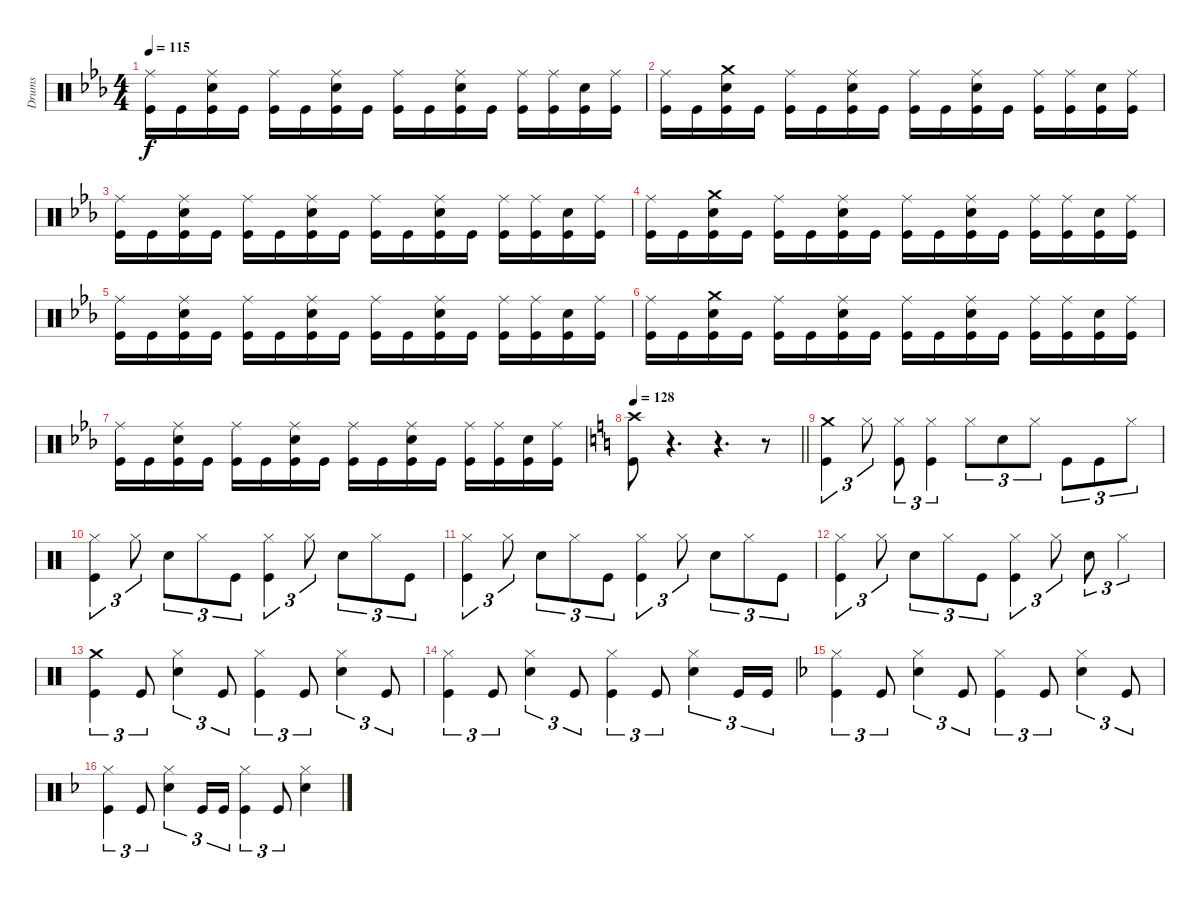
\track ("Drums" "Drums") {instrument percussion}
\staff {score}
\articulation defaults
\ts (4 4)
\tempo 115
\clef neutral
\ks cminor
("Ride (middle)" "Kick (hit)").16{dy f} "Kick (hit)".16 ("Ride (middle)" "Snare (hit) 2" "Kick (hit)").16 "Kick (hit)".16 ("Ride (middle)" "Kick (hit)").16 "Kick (hit)".16 ("Ride (middle)" "Snare (hit) 2" "Kick (hit)").16 "Kick (hit)".16 ("Ride (middle)" "Kick (hit)").16 "Kick (hit)".16 ("Ride (middle)" "Snare (hit) 2" "Kick (hit)").16 "Kick (hit)".16 ("Ride (middle)" "Kick (hit)").16 ("Ride (middle)" "Kick (hit)").16 ("Snare (hit) 2" "Kick (hit)").16 ("Ride (middle)" "Kick (hit)").16 |
("Ride (middle)" "Kick (hit)").16 "Kick (hit)".16 ("Crash medium (hit)" "Snare (hit) 2" "Kick (hit)").16 "Kick (hit)".16 ("Ride (middle)" "Kick (hit)").16 "Kick (hit)".16 ("Ride (middle)" "Snare (hit) 2" "Kick (hit)").16 "Kick (hit)".16 ("Ride (middle)" "Kick (hit)").16 "Kick (hit)".16 ("Ride (middle)" "Snare (hit) 2" "Kick (hit)").16 "Kick (hit)".16 ("Ride (middle)" "Kick (hit)").16 ("Ride (middle)" "Kick (hit)").16 ("Snare (hit) 2" "Kick (hit)").16 ("Ride (middle)" "Kick (hit)").16 |
("Ride (middle)" "Kick (hit)").16 "Kick (hit)".16 ("Ride (middle)" "Snare (hit) 2" "Kick (hit)").16 "Kick (hit)".16 ("Ride (middle)" "Kick (hit)").16 "Kick (hit)".16 ("Ride (middle)" "Snare (hit) 2" "Kick (hit)").16 "Kick (hit)".16 ("Ride (middle)" "Kick (hit)").16 "Kick (hit)".16 ("Ride (middle)" "Snare (hit) 2" "Kick (hit)").16 "Kick (hit)".16 ("Ride (middle)" "Kick (hit)").16 ("Ride (middle)" "Kick (hit)").16 ("Snare (hit) 2" "Kick (hit)").16 ("Ride (middle)" "Kick (hit)").16 |
("Ride (middle)" "Kick (hit)").16 "Kick (hit)".16 ("Crash medium (hit)" "Snare (hit) 2" "Kick (hit)").16 "Kick (hit)".16 ("Ride (middle)" "Kick (hit)").16 "Kick (hit)".16 ("Ride (middle)" "Snare (hit) 2" "Kick (hit)").16 "Kick (hit)".16 ("Ride (middle)" "Kick (hit)").16 "Kick (hit)".16 ("Ride (middle)" "Snare (hit) 2" "Kick (hit)").16 "Kick (hit)".16 ("Ride (middle)" "Kick (hit)").16 ("Ride (middle)" "Kick (hit)").16 ("Snare (hit) 2" "Kick (hit)").16 ("Ride (middle)" "Kick (hit)").16 |
("Ride (middle)" "Kick (hit)").16 "Kick (hit)".16 ("Ride (middle)" "Snare (hit) 2" "Kick (hit)").16 "Kick (hit)".16 ("Ride (middle)" "Kick (hit)").16 "Kick (hit)".16 ("Ride (middle)" "Snare (hit) 2" "Kick (hit)").16 "Kick (hit)".16 ("Ride (middle)" "Kick (hit)").16 "Kick (hit)".16 ("Ride (middle)" "Snare (hit) 2" "Kick (hit)").16 "Kick (hit)".16 ("Ride (middle)" "Kick (hit)").16 ("Ride (middle)" "Kick (hit)").16 ("Snare (hit) 2" "Kick (hit)").16 ("Ride (middle)" "Kick (hit)").16 |
("Ride (middle)" "Kick (hit)").16 "Kick (hit)".16 ("Crash medium (hit)" "Snare (hit) 2" "Kick (hit)").16 "Kick (hit)".16 ("Ride (middle)" "Kick (hit)").16 "Kick (hit)".16 ("Ride (middle)" "Snare (hit) 2" "Kick (hit)").16 "Kick (hit)".16 ("Ride (middle)" "Kick (hit)").16 "Kick (hit)".16 ("Ride (middle)" "Snare (hit) 2" "Kick (hit)").16 "Kick (hit)".16 ("Ride (middle)" "Kick (hit)").16 ("Ride (middle)" "Kick (hit)").16 ("Snare (hit) 2" "Kick (hit)").16 ("Ride (middle)" "Kick (hit)").16 |
("Ride (middle)" "Kick (hit)").16 "Kick (hit)".16 ("Ride (middle)" "Snare (hit) 2" "Kick (hit)").16 "Kick (hit)".16 ("Ride (middle)" "Kick (hit)").16 "Kick (hit)".16 ("Ride (middle)" "Snare (hit) 2" "Kick (hit)").16 "Kick (hit)".16 ("Ride (middle)" "Kick (hit)").16 "Kick (hit)".16 ("Ride (middle)" "Snare (hit) 2" "Kick (hit)").16 "Kick (hit)".16 ("Ride (middle)" "Kick (hit)").16 ("Ride (middle)" "Kick (hit)").16 ("Snare (hit) 2" "Kick (hit)").16 ("Ride (middle)" "Kick (hit)").16 |
\tempo 128
\barLineRight lightlight
\ks aminor
("Crash high (hit)" "Kick (hit)").8 r.4{d} r.4{d} r.8 |
\section ("" "")
("Crash medium (hit)" "Kick (hit)").4{tu (3 2)} "Hi-Hat (closed)".8{tu (3 2)} ("Hi-Hat (closed)" "Kick (hit)").8{tu (3 2)} ("Hi-Hat (closed)" "Kick (hit)").4{tu (3 2)} "Hi-Hat (closed)".8{tu (3 2)} "Snare (hit) 2".8{tu (3 2)} "Hi-Hat (closed)".8{tu (3 2)} "Kick (hit)".8{tu (3 2)} "Kick (hit)".8{tu (3 2)} "Hi-Hat (closed)".8{tu (3 2)} |
("Hi-Hat (closed)" "Kick (hit)").4{tu (3 2)} "Hi-Hat (closed)".8{tu (3 2)} "Snare (hit) 2".8{tu (3 2)} "Hi-Hat (closed)".8{tu (3 2)} "Kick (hit)".8{tu (3 2)} ("Hi-Hat (closed)" "Kick (hit)").4{tu (3 2)} "Hi-Hat (closed)".8{tu (3 2)} "Snare (hit) 2".8{tu (3 2)} "Hi-Hat (closed)".8{tu (3 2)} "Kick (hit)".8{tu (3 2)} |
("Hi-Hat (closed)" "Kick (hit)").4{tu (3 2)} "Hi-Hat (closed)".8{tu (3 2)} "Snare (hit) 2".8{tu (3 2)} "Hi-Hat (closed)".8{tu (3 2)} "Kick (hit)".8{tu (3 2)} ("Hi-Hat (closed)" "Kick (hit)").4{tu (3 2)} "Hi-Hat (closed)".8{tu (3 2)} "Snare (hit) 2".8{tu (3 2)} "Hi-Hat (closed)".8{tu (3 2)} "Kick (hit)".8{tu (3 2)} |
("Hi-Hat (closed)" "Kick (hit)").4{tu (3 2)} "Hi-Hat (closed)".8{tu (3 2)} "Snare (hit) 2".8{tu (3 2)} "Hi-Hat (closed)".8{tu (3 2)} "Kick (hit)".8{tu (3 2)} ("Hi-Hat (closed)" "Kick (hit)").4{tu (3 2)} "Hi-Hat (closed)".8{tu (3 2)} "Snare (hit) 2".8{tu (3 2)} "Hi-Hat (closed)".4{tu (3 2)} |
("Crash medium (hit)" "Kick (hit)").4{tu (3 2)} "Kick (hit)".8{tu (3 2)} ("Hi-Hat (closed)" "Snare (hit) 2").4{tu (3 2)} "Kick (hit)".8{tu (3 2)} ("Hi-Hat (closed)" "Kick (hit)").4{tu (3 2)} "Kick (hit)".8{tu (3 2)} ("Hi-Hat (closed)" "Snare (hit) 2").4{tu (3 2)} "Kick (hit)".8{tu (3 2)} |
("Hi-Hat (closed)" "Kick (hit)").4{tu (3 2)} "Kick (hit)".8{tu (3 2)} ("Hi-Hat (closed)" "Snare (hit) 2").4{tu (3 2)} "Kick (hit)".8{tu (3 2)} ("Hi-Hat (closed)" "Kick (hit)").4{tu (3 2)} "Kick (hit)".8{tu (3 2)} ("Hi-Hat (closed)" "Snare (hit) 2").4{tu (3 2)} "Kick (hit)".16{tu (3 2)} "Kick (hit)".16{tu (3 2)} |
\ks dminor
("Hi-Hat (closed)" "Kick (hit)").4{tu (3 2)} "Kick (hit)".8{tu (3 2)} ("Hi-Hat (closed)" "Snare (hit) 2").4{tu (3 2)} "Kick (hit)".8{tu (3 2)} ("Hi-Hat (closed)" "Kick (hit)").4{tu (3 2)} "Kick (hit)".8{tu (3 2)} ("Hi-Hat (closed)" "Snare (hit) 2").4{tu (3 2)} "Kick (hit)".8{tu (3 2)} |
("Hi-Hat (closed)" "Kick (hit)").4{tu (3 2)} "Kick (hit)".8{tu (3 2)} ("Hi-Hat (closed)" "Snare (hit) 2").4{tu (3 2)} "Kick (hit)".16{tu (3 2)} "Kick (hit)".16{tu (3 2)} ("Hi-Hat (closed)" "Kick (hit)").4{tu (3 2)} "Kick (hit)".8{tu (3 2)} ("Hi-Hat (closed)" "Snare (hit) 2").4
